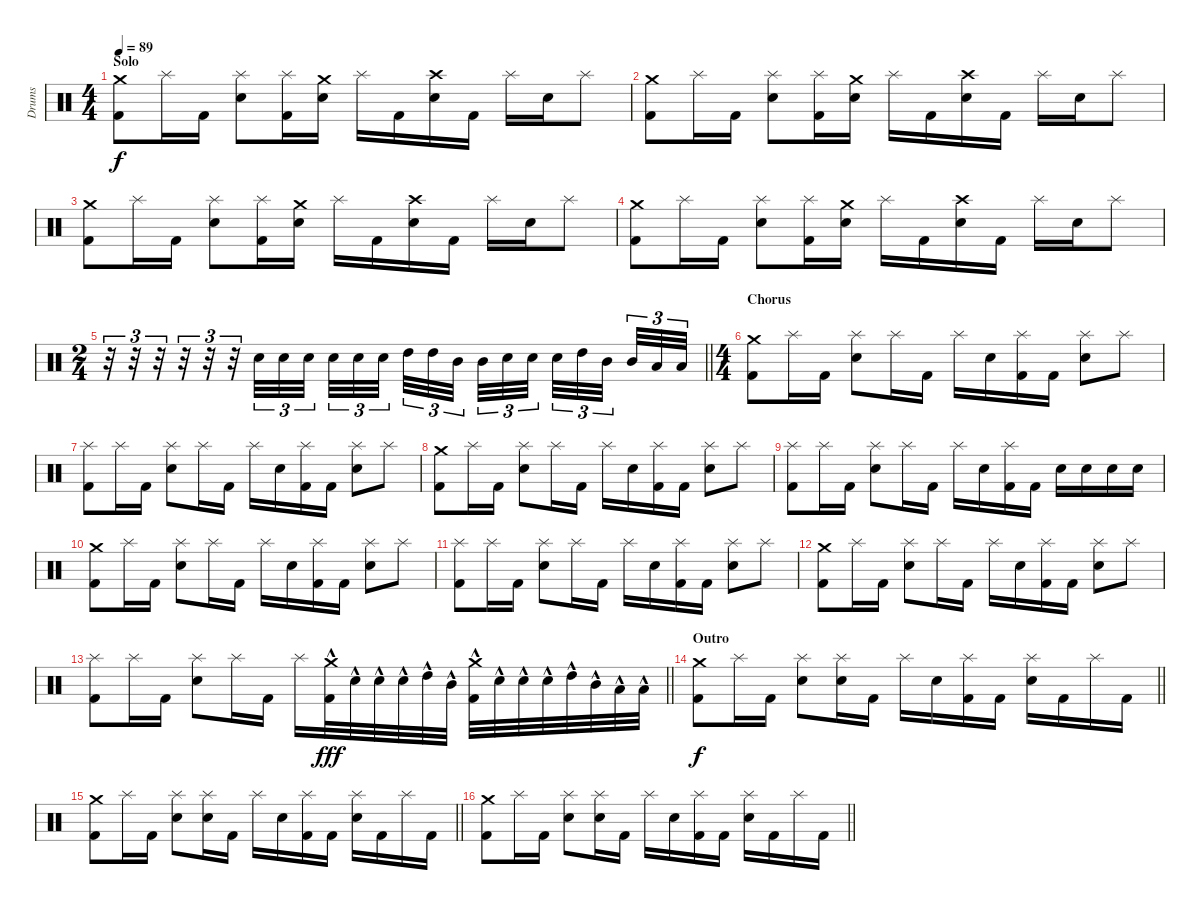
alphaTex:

\track ("Drums" "Drums") {instrument percussion}
\staff {score}
\articulation defaults
\ts (4 4)
\section ("" "Solo")
\tempo 89
\clef neutral
\ks c
("Crash medium (hit)" "Kick (hit) 2").8{dy f} "Splash (hit)".16 "Kick (hit) 2".16 ("Splash (hit)" "Electric Snare (hit)").8 ("Splash (hit)" "Kick (hit) 2").16 ("Crash medium (hit)" "Electric Snare (hit)").16 "Splash (hit)".16 "Kick (hit) 2".16 ("Crash high (hit)" "Electric Snare (hit)").16 "Kick (hit) 2".16 "Splash (hit)".16 "Electric Snare (hit)".16 "Splash (hit)".8 |
("Crash medium (hit)" "Kick (hit) 2").8 "Splash (hit)".16 "Kick (hit) 2".16 ("Splash (hit)" "Electric Snare (hit)").8 ("Splash (hit)" "Kick (hit) 2").16 ("Crash medium (hit)" "Electric Snare (hit)").16 "Splash (hit)".16 "Kick (hit) 2".16 ("Crash high (hit)" "Electric Snare (hit)").16 "Kick (hit) 2".16 "Splash (hit)".16 "Electric Snare (hit)".16 "Splash (hit)".8 |
("Crash medium (hit)" "Kick (hit) 2").8 "Splash (hit)".16 "Kick (hit) 2".16 ("Splash (hit)" "Electric Snare (hit)").8 ("Splash (hit)" "Kick (hit) 2").16 ("Crash medium (hit)" "Electric Snare (hit)").16 "Splash (hit)".16 "Kick (hit) 2".16 ("Crash high (hit)" "Electric Snare (hit)").16 "Kick (hit) 2".16 "Splash (hit)".16 "Electric Snare (hit)".16 "Splash (hit)".8 |
("Crash medium (hit)" "Kick (hit) 2").8 "Splash (hit)".16 "Kick (hit) 2".16 ("Splash (hit)" "Electric Snare (hit)").8 ("Splash (hit)" "Kick (hit) 2").16 ("Crash medium (hit)" "Electric Snare (hit)").16 "Splash (hit)".16 "Kick (hit) 2".16 ("Crash high (hit)" "Electric Snare (hit)").16 "Kick (hit) 2".16 "Splash (hit)".16 "Electric Snare (hit)".16 "Splash (hit)".8 |
\ts (2 4)
\barLineRight lightlight
r.32{tu (3 2)} r.32{tu (3 2)} r.32{tu (3 2)} r.32{tu (3 2)} r.32{tu (3 2)} r.32{tu (3 2)} "Electric Snare (hit)".32{tu (3 2)} "Electric Snare (hit)".32{tu (3 2)} "Electric Snare (hit)".32{tu (3 2) beam splitsecondary} "Electric Snare (hit)".32{tu (3 2)} "Electric Snare (hit)".32{tu (3 2)} "Electric Snare (hit)".32{tu (3 2)} "High Tom (hit)".32{tu (3 2)} "High Tom (hit)".32{tu (3 2)} "Mid Tom (hit)".32{tu (3 2) beam splitsecondary} "Mid Tom (hit)".32{tu (3 2)} "Electric Snare (hit)".32{tu (3 2)} "Electric Snare (hit)".32{tu (3 2) beam splitsecondary} "Electric Snare (hit)".32{tu (3 2)} "High Tom (hit)".32{tu (3 2)} "Mid Tom (hit)".32{tu (3 2) beam splitsecondary} "Mid Tom (hit)".32{tu (3 2)} "Low Tom (hit)".32{tu (3 2)} "Low Tom (hit)".32{tu (3 2)} |
\ts (4 4)
\section ("" "Chorus")
("Crash medium (hit)" "Kick (hit) 2").8 "Splash (hit)".16 "Kick (hit) 2".16 ("Splash (hit)" "Electric Snare (hit)").8 "Splash (hit)".16 "Kick (hit) 2".16 "Splash (hit)".16 "Electric Snare (hit)".16 ("Splash (hit)" "Kick (hit) 2").16 "Kick (hit) 2".16 ("Splash (hit)" "Electric Snare (hit)").8 "Splash (hit)".8 |
("Splash (hit)" "Kick (hit) 2").8 "Splash (hit)".16 "Kick (hit) 2".16 ("Splash (hit)" "Electric Snare (hit)").8 "Splash (hit)".16 "Kick (hit) 2".16 "Splash (hit)".16 "Electric Snare (hit)".16 ("Splash (hit)" "Kick (hit) 2").16 "Kick (hit) 2".16 ("Splash (hit)" "Electric Snare (hit)").8 "Splash (hit)".8 |
("Crash medium (hit)" "Kick (hit) 2").8 "Splash (hit)".16 "Kick (hit) 2".16 ("Splash (hit)" "Electric Snare (hit)").8 "Splash (hit)".16 "Kick (hit) 2".16 "Splash (hit)".16 "Electric Snare (hit)".16 ("Splash (hit)" "Kick (hit) 2").16 "Kick (hit) 2".16 ("Splash (hit)" "Electric Snare (hit)").8 "Splash (hit)".8 |
("Splash (hit)" "Kick (hit) 2").8 "Splash (hit)".16 "Kick (hit) 2".16 ("Splash (hit)" "Electric Snare (hit)").8 "Splash (hit)".16 "Kick (hit) 2".16 "Splash (hit)".16 "Electric Snare (hit)".16 ("Splash (hit)" "Kick (hit) 2").16 "Kick (hit) 2".16 "Electric Snare (hit)".16 "Electric Snare (hit)".16 "Electric Snare (hit)".16 "Electric Snare (hit)".16 |
("Crash medium (hit)" "Kick (hit) 2").8 "Splash (hit)".16 "Kick (hit) 2".16 ("Splash (hit)" "Electric Snare (hit)").8 "Splash (hit)".16 "Kick (hit) 2".16 "Splash (hit)".16 "Electric Snare (hit)".16 ("Splash (hit)" "Kick (hit) 2").16 "Kick (hit) 2".16 ("Splash (hit)" "Electric Snare (hit)").8 "Splash (hit)".8 |
("Splash (hit)" "Kick (hit) 2").8 "Splash (hit)".16 "Kick (hit) 2".16 ("Splash (hit)" "Electric Snare (hit)").8 "Splash (hit)".16 "Kick (hit) 2".16 "Splash (hit)".16 "Electric Snare (hit)".16 ("Splash (hit)" "Kick (hit) 2").16 "Kick (hit) 2".16 ("Splash (hit)" "Electric Snare (hit)").8 "Splash (hit)".8 |
("Crash medium (hit)" "Kick (hit) 2").8 "Splash (hit)".16 "Kick (hit) 2".16 ("Splash (hit)" "Electric Snare (hit)").8 "Splash (hit)".16 "Kick (hit) 2".16 "Splash (hit)".16 "Electric Snare (hit)".16 ("Splash (hit)" "Kick (hit) 2").16 "Kick (hit) 2".16 ("Splash (hit)" "Electric Snare (hit)").8 "Splash (hit)".8 |
\barLineRight lightlight
("Splash (hit)" "Kick (hit) 2").8 "Splash (hit)".16 "Kick (hit) 2".16 ("Splash (hit)" "Electric Snare (hit)").8 "Splash (hit)".16 "Kick (hit) 2".16 "Splash (hit)".16 ("Crash medium (hit)"{hac} "Kick (hit) 2"{hac}).32{dy fff} "Electric Snare (hit)"{hac}.32 "Electric Snare (hit)"{hac}.32 "Electric Snare (hit)"{hac}.32 "High Tom (hit)"{hac}.32 "Mid Tom (hit)"{hac}.32 ("Crash medium (hit)"{hac} "Kick (hit) 2"{hac}).32 "Electric Snare (hit)"{hac}.32 "Electric Snare (hit)"{hac}.32 "Electric Snare (hit)"{hac}.32 "High Tom (hit)"{hac}.32 "Mid Tom (hit)"{hac}.32 "Low Tom (hit)"{hac}.32 "Low Tom (hit)"{hac}.32 |
\section ("" "Outro")
\barLineRight lightlight
("Crash medium (hit)" "Kick (hit) 2").8{dy f} "Splash (hit)".16 "Kick (hit) 2".16 ("Splash (hit)" "Electric Snare (hit)").8 ("Splash (hit)" "Electric Snare (hit)").16 "Kick (hit) 2".16 "Splash (hit)".16 "Electric Snare (hit)".16 ("Splash (hit)" "Kick (hit) 2").16 "Kick (hit) 2".16 ("Splash (hit)" "Electric Snare (hit)").16 "Kick (hit) 2".16 "Splash (hit)".16 "Kick (hit) 2".16 |
\barLineRight lightlight
("Crash medium (hit)" "Kick (hit) 2").8 "Splash (hit)".16 "Kick (hit) 2".16 ("Splash (hit)" "Electric Snare (hit)").8 ("Splash (hit)" "Electric Snare (hit)").16 "Kick (hit) 2".16 "Splash (hit)".16 "Electric Snare (hit)".16 ("Splash (hit)" "Kick (hit) 2").16 "Kick (hit) 2".16 ("Splash (hit)" "Electric Snare (hit)").16 "Kick (hit) 2".16 "Splash (hit)".16 "Kick (hit) 2".16 |
\barLineRight lightlight
("Crash medium (hit)" "Kick (hit) 2").8 "Splash (hit)".16 "Kick (hit) 2".16 ("Splash (hit)" "Electric Snare (hit)").8 ("Splash (hit)" "Electric Snare (hit)").16 "Kick (hit) 2".16 "Splash (hit)".16 "Electric Snare (hit)".16 ("Splash (hit)" "Kick (hit) 2").16 "Kick (hit) 2".16 ("Splash (hit)" "Electric Snare (hit)").16 "Kick (hit) 2".16 "Splash (hit)".16 "Kick (hit) 2".16
